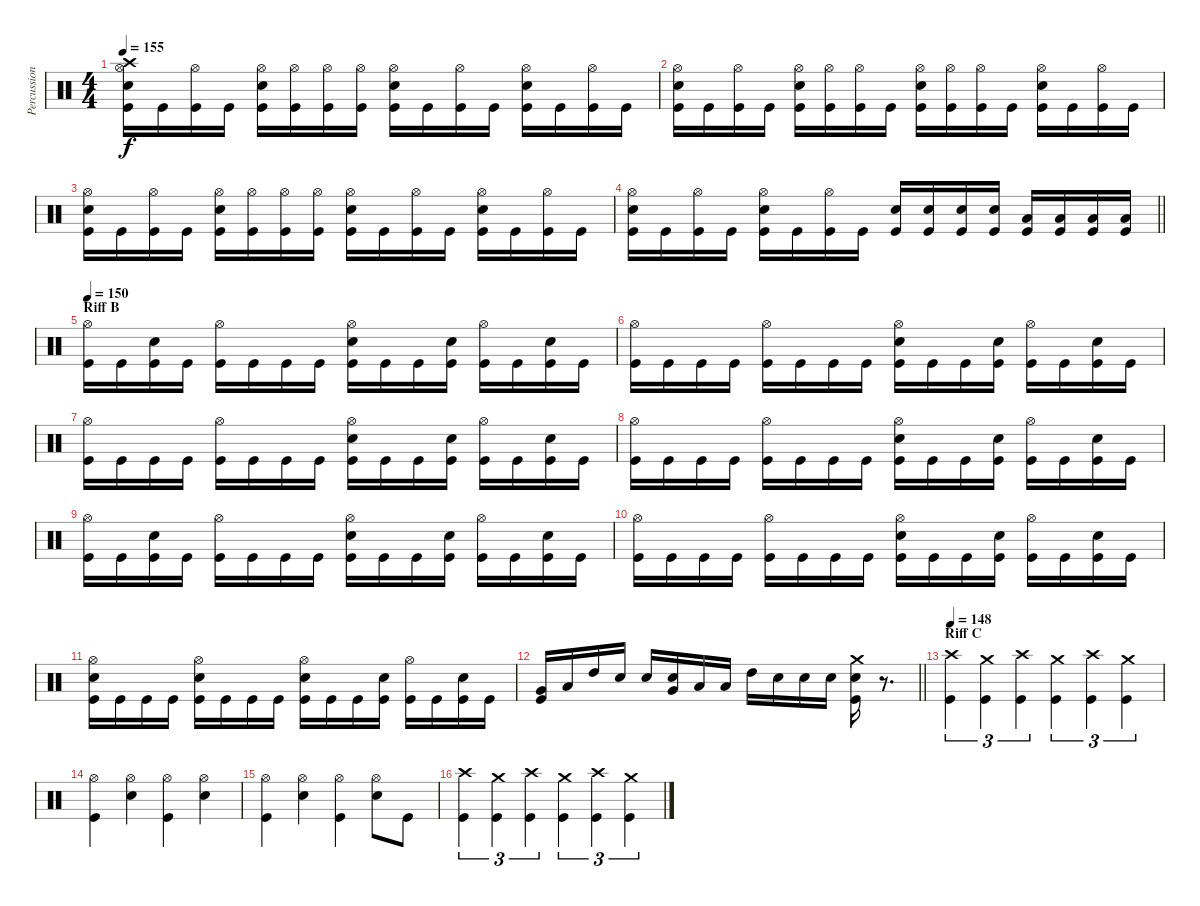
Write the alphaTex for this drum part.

\track ("Percussion" "Percussion") {instrument percussion}
\staff {score}
\articulation defaults
\ts (4 4)
\tempo 155
\clef neutral
\ks c
("Crash high (hit)" "Hi-Hat (open)" "Snare (hit) 2" "Kick (hit)").16{dy f} "Kick (hit)".16 ("Hi-Hat (open)" "Kick (hit)").16 "Kick (hit)".16 ("Hi-Hat (open)" "Snare (hit) 2" "Kick (hit)").16 ("Hi-Hat (open)" "Kick (hit)").16 ("Hi-Hat (open)" "Kick (hit)").16 ("Hi-Hat (open)" "Kick (hit)").16 ("Hi-Hat (open)" "Snare (hit) 2" "Kick (hit)").16 "Kick (hit)".16 ("Hi-Hat (open)" "Kick (hit)").16 "Kick (hit)".16 ("Hi-Hat (open)" "Snare (hit) 2" "Kick (hit)").16 "Kick (hit)".16 ("Hi-Hat (open)" "Kick (hit)").16 "Kick (hit)".16 |
("Hi-Hat (open)" "Snare (hit) 2" "Kick (hit)").16 "Kick (hit)".16 ("Hi-Hat (open)" "Kick (hit)").16 "Kick (hit)".16 ("Hi-Hat (open)" "Snare (hit) 2" "Kick (hit)").16 ("Hi-Hat (open)" "Kick (hit)").16 ("Hi-Hat (open)" "Kick (hit)").16 "Kick (hit)".16 ("Hi-Hat (open)" "Snare (hit) 2" "Kick (hit)").16 ("Hi-Hat (open)" "Kick (hit)").16 ("Hi-Hat (open)" "Kick (hit)").16 "Kick (hit)".16 ("Hi-Hat (open)" "Snare (hit) 2" "Kick (hit)").16 "Kick (hit)".16 ("Hi-Hat (open)" "Kick (hit)").16 "Kick (hit)".16 |
("Hi-Hat (open)" "Snare (hit) 2" "Kick (hit)").16 "Kick (hit)".16 ("Hi-Hat (open)" "Kick (hit)").16 "Kick (hit)".16 ("Hi-Hat (open)" "Snare (hit) 2" "Kick (hit)").16 ("Hi-Hat (open)" "Kick (hit)").16 ("Hi-Hat (open)" "Kick (hit)").16 ("Hi-Hat (open)" "Kick (hit)").16 ("Hi-Hat (open)" "Snare (hit) 2" "Kick (hit)").16 "Kick (hit)".16 ("Hi-Hat (open)" "Kick (hit)").16 "Kick (hit)".16 ("Hi-Hat (open)" "Snare (hit) 2" "Kick (hit)").16 "Kick (hit)".16 ("Hi-Hat (open)" "Kick (hit)").16 "Kick (hit)".16 |
\barLineRight lightlight
("Hi-Hat (open)" "Snare (hit) 2" "Kick (hit)").16 "Kick (hit)".16 ("Hi-Hat (open)" "Kick (hit)").16 "Kick (hit)".16 ("Hi-Hat (open)" "Snare (hit) 2" "Kick (hit)").16 "Kick (hit)".16 ("Hi-Hat (open)" "Kick (hit)").16 "Kick (hit)".16 ("Snare (hit) 2" "Kick (hit)").16 ("Snare (hit) 2" "Kick (hit)").16 ("Snare (hit) 2" "Kick (hit)").16 ("Snare (hit) 2" "Kick (hit)").16 ("Low Tom (hit)" "Kick (hit)").16 ("Low Tom (hit)" "Kick (hit)").16 ("Low Tom (hit)" "Kick (hit)").16 ("Low Tom (hit)" "Kick (hit)").16 |
\section ("" "Riff B")
\tempo 150
("Hi-Hat (open)" "Kick (hit)").16 "Kick (hit)".16 ("Snare (hit) 2" "Kick (hit)").16 "Kick (hit)".16 ("Hi-Hat (open)" "Kick (hit)").16 "Kick (hit)".16 "Kick (hit)".16 "Kick (hit)".16 ("Hi-Hat (open)" "Snare (hit) 2" "Kick (hit)").16 "Kick (hit)".16 "Kick (hit)".16 ("Snare (hit) 2" "Kick (hit)").16 ("Hi-Hat (open)" "Kick (hit)").16 "Kick (hit)".16 ("Snare (hit) 2" "Kick (hit)").16 "Kick (hit)".16 |
("Hi-Hat (open)" "Kick (hit)").16 "Kick (hit)".16 "Kick (hit)".16 "Kick (hit)".16 ("Hi-Hat (open)" "Kick (hit)").16 "Kick (hit)".16 "Kick (hit)".16 "Kick (hit)".16 ("Hi-Hat (open)" "Snare (hit) 2" "Kick (hit)").16 "Kick (hit)".16 "Kick (hit)".16 ("Snare (hit) 2" "Kick (hit)").16 ("Hi-Hat (open)" "Kick (hit)").16 "Kick (hit)".16 ("Snare (hit) 2" "Kick (hit)").16 "Kick (hit)".16 |
("Hi-Hat (open)" "Kick (hit)").16 "Kick (hit)".16 "Kick (hit)".16 "Kick (hit)".16 ("Hi-Hat (open)" "Kick (hit)").16 "Kick (hit)".16 "Kick (hit)".16 "Kick (hit)".16 ("Hi-Hat (open)" "Snare (hit) 2" "Kick (hit)").16 "Kick (hit)".16 "Kick (hit)".16 ("Snare (hit) 2" "Kick (hit)").16 ("Hi-Hat (open)" "Kick (hit)").16 "Kick (hit)".16 ("Snare (hit) 2" "Kick (hit)").16 "Kick (hit)".16 |
("Hi-Hat (open)" "Kick (hit)").16 "Kick (hit)".16 "Kick (hit)".16 "Kick (hit)".16 ("Hi-Hat (open)" "Kick (hit)").16 "Kick (hit)".16 "Kick (hit)".16 "Kick (hit)".16 ("Hi-Hat (open)" "Snare (hit) 2" "Kick (hit)").16 "Kick (hit)".16 "Kick (hit)".16 ("Snare (hit) 2" "Kick (hit)").16 ("Hi-Hat (open)" "Kick (hit)").16 "Kick (hit)".16 ("Snare (hit) 2" "Kick (hit)").16 "Kick (hit)".16 |
("Hi-Hat (open)" "Kick (hit)").16 "Kick (hit)".16 ("Snare (hit) 2" "Kick (hit)").16 "Kick (hit)".16 ("Hi-Hat (open)" "Kick (hit)").16 "Kick (hit)".16 "Kick (hit)".16 "Kick (hit)".16 ("Hi-Hat (open)" "Snare (hit) 2" "Kick (hit)").16 "Kick (hit)".16 "Kick (hit)".16 ("Snare (hit) 2" "Kick (hit)").16 ("Hi-Hat (open)" "Kick (hit)").16 "Kick (hit)".16 ("Snare (hit) 2" "Kick (hit)").16 "Kick (hit)".16 |
("Hi-Hat (open)" "Kick (hit)").16 "Kick (hit)".16 "Kick (hit)".16 "Kick (hit)".16 ("Hi-Hat (open)" "Kick (hit)").16 "Kick (hit)".16 "Kick (hit)".16 "Kick (hit)".16 ("Hi-Hat (open)" "Snare (hit) 2" "Kick (hit)").16 "Kick (hit)".16 "Kick (hit)".16 ("Snare (hit) 2" "Kick (hit)").16 ("Hi-Hat (open)" "Kick (hit)").16 "Kick (hit)".16 ("Snare (hit) 2" "Kick (hit)").16 "Kick (hit)".16 |
("Hi-Hat (open)" "Snare (hit) 2" "Kick (hit)").16 "Kick (hit)".16 "Kick (hit)".16 "Kick (hit)".16 ("Hi-Hat (open)" "Snare (hit) 2" "Kick (hit)").16 "Kick (hit)".16 "Kick (hit)".16 "Kick (hit)".16 ("Hi-Hat (open)" "Snare (hit) 2" "Kick (hit)").16 "Kick (hit)".16 "Kick (hit)".16 ("Snare (hit) 2" "Kick (hit)").16 ("Hi-Hat (open)" "Kick (hit)").16 "Kick (hit)".16 ("Snare (hit) 2" "Kick (hit)").16 "Kick (hit)".16 |
\barLineRight lightlight
("Very Low Tom (hit)" "Kick (hit)").16 "Low Tom (hit)".16 "High Tom (hit)".16 "Snare (hit) 2".16 "Snare (hit) 2".16 ("Very Low Tom (hit)" "Snare (hit) 2").16 "Low Tom (hit)".16 "Low Tom (hit)".16 "High Tom (hit)".16 "Snare (hit) 2".16 "Snare (hit) 2".16 "Snare (hit) 2".16 ("Crash medium (hit)" "Snare (hit) 2" "Kick (hit)").16 r.8{d} |
\section ("" "Riff C")
\tempo 148
("Crash high (hit)" "Kick (hit)").4{tu (3 2)} ("Crash medium (hit)" "Kick (hit)").4{tu (3 2)} ("Crash high (hit)" "Kick (hit)").4{tu (3 2)} ("Crash medium (hit)" "Kick (hit)").4{tu (3 2)} ("Crash high (hit)" "Kick (hit)").4{tu (3 2)} ("Crash medium (hit)" "Kick (hit)").4{tu (3 2)} |
("Hi-Hat (open)" "Kick (hit)").4 ("Hi-Hat (open)" "Snare (hit) 2").4 ("Hi-Hat (open)" "Kick (hit)").4 ("Hi-Hat (open)" "Snare (hit) 2").4 |
("Hi-Hat (open)" "Kick (hit)").4 ("Hi-Hat (open)" "Snare (hit) 2").4 ("Hi-Hat (open)" "Kick (hit)").4 ("Hi-Hat (open)" "Snare (hit) 2").8 "Kick (hit)".8 |
("Crash high (hit)" "Kick (hit)").4{tu (3 2)} ("Crash medium (hit)" "Kick (hit)").4{tu (3 2)} ("Crash high (hit)" "Kick (hit)").4{tu (3 2)} ("Crash medium (hit)" "Kick (hit)").4{tu (3 2)} ("Crash high (hit)" "Kick (hit)").4{tu (3 2)} ("Crash medium (hit)" "Kick (hit)").4{tu (3 2)}
